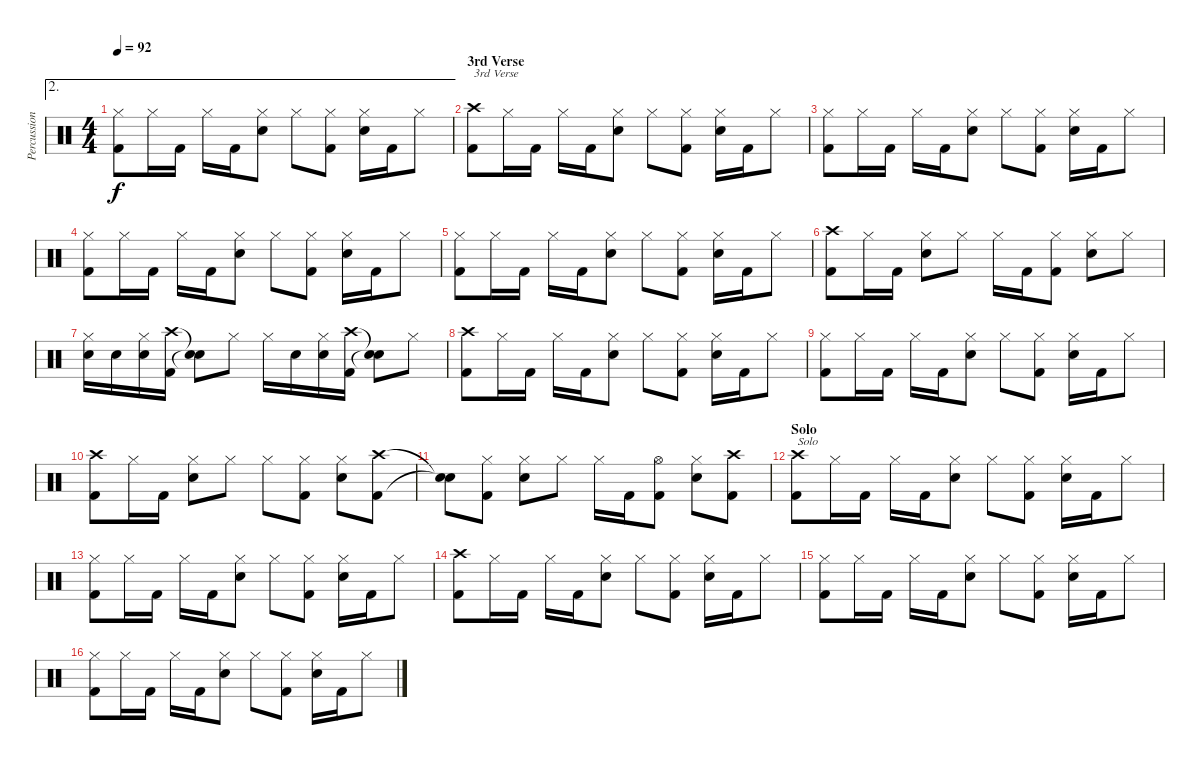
\track ("Percussions" "Percussion") {instrument percussion}
\staff {score}
\articulation defaults
\ae 2
\ts (4 4)
\tempo 92
\clef neutral
\ks c
("Hi-Hat (closed)" "Kick (hit) 2").8{dy f} "Hi-Hat (closed)".16 "Kick (hit) 2".16 "Hi-Hat (closed)".16 "Kick (hit) 2".16 ("Hi-Hat (closed)" "Snare (hit) 2").8 "Hi-Hat (closed)".8 ("Hi-Hat (closed)" "Kick (hit) 2").8 ("Hi-Hat (closed)" "Snare (hit) 2").16 "Kick (hit) 2".16 "Hi-Hat (closed)".8 |
\section ("" "3rd Verse")
("Crash high (hit)" "Kick (hit) 2").8{txt "3rd Verse"} "Hi-Hat (closed)".16 "Kick (hit) 2".16 "Hi-Hat (closed)".16 "Kick (hit) 2".16 ("Hi-Hat (closed)" "Snare (hit) 2").8 "Hi-Hat (closed)".8 ("Hi-Hat (closed)" "Kick (hit) 2").8 ("Hi-Hat (closed)" "Snare (hit) 2").16 "Kick (hit) 2".16 "Hi-Hat (closed)".8 |
("Hi-Hat (closed)" "Kick (hit) 2").8 "Hi-Hat (closed)".16 "Kick (hit) 2".16 "Hi-Hat (closed)".16 "Kick (hit) 2".16 ("Hi-Hat (closed)" "Snare (hit) 2").8 "Hi-Hat (closed)".8 ("Hi-Hat (closed)" "Kick (hit) 2").8 ("Hi-Hat (closed)" "Snare (hit) 2").16 "Kick (hit) 2".16 "Hi-Hat (closed)".8 |
("Hi-Hat (closed)" "Kick (hit) 2").8 "Hi-Hat (closed)".16 "Kick (hit) 2".16 "Hi-Hat (closed)".16 "Kick (hit) 2".16 ("Hi-Hat (closed)" "Snare (hit) 2").8 "Hi-Hat (closed)".8 ("Hi-Hat (closed)" "Kick (hit) 2").8 ("Hi-Hat (closed)" "Snare (hit) 2").16 "Kick (hit) 2".16 "Hi-Hat (closed)".8 |
("Hi-Hat (closed)" "Kick (hit) 2").8 "Hi-Hat (closed)".16 "Kick (hit) 2".16 "Hi-Hat (closed)".16 "Kick (hit) 2".16 ("Hi-Hat (closed)" "Snare (hit) 2").8 "Hi-Hat (closed)".8 ("Hi-Hat (closed)" "Kick (hit) 2").8 ("Hi-Hat (closed)" "Snare (hit) 2").16 "Kick (hit) 2".16 "Hi-Hat (closed)".8 |
("Crash high (hit)" "Kick (hit) 2").8 "Hi-Hat (closed)".16 "Kick (hit) 2".16 ("Hi-Hat (closed)" "Snare (hit) 2").8 "Hi-Hat (closed)".8 "Hi-Hat (closed)".16 "Kick (hit) 2".16 ("Hi-Hat (closed)" "Kick (hit) 2").8 ("Hi-Hat (closed)" "Snare (hit) 2").8 "Hi-Hat (closed)".8 |
("Hi-Hat (closed)" "Snare (hit) 2").16 "Snare (hit) 2".16 ("Hi-Hat (closed)" "Snare (hit) 2").16 ("Crash high (hit)" "Kick (hit) 2").16 ("Snare (hit)"{t} "Snare (hit)"{t}).8 "Hi-Hat (closed)".8 "Hi-Hat (closed)".16 "Snare (hit) 2".16 ("Hi-Hat (closed)" "Snare (hit) 2").16 ("Crash high (hit)" "Kick (hit) 2").16 ("Snare (hit)"{t} "Snare (hit)"{t}).8 "Hi-Hat (closed)".8 |
("Crash high (hit)" "Kick (hit) 2").8 "Hi-Hat (closed)".16 "Kick (hit) 2".16 "Hi-Hat (closed)".16 "Kick (hit) 2".16 ("Hi-Hat (closed)" "Snare (hit) 2").8 "Hi-Hat (closed)".8 ("Hi-Hat (closed)" "Kick (hit) 2").8 ("Hi-Hat (closed)" "Snare (hit) 2").16 "Kick (hit) 2".16 "Hi-Hat (closed)".8 |
("Hi-Hat (closed)" "Kick (hit) 2").8 "Hi-Hat (closed)".16 "Kick (hit) 2".16 "Hi-Hat (closed)".16 "Kick (hit) 2".16 ("Hi-Hat (closed)" "Snare (hit) 2").8 "Hi-Hat (closed)".8 ("Hi-Hat (closed)" "Kick (hit) 2").8 ("Hi-Hat (closed)" "Snare (hit) 2").16 "Kick (hit) 2".16 "Hi-Hat (closed)".8 |
("Crash high (hit)" "Kick (hit) 2").8 "Hi-Hat (closed)".16 "Kick (hit) 2".16 ("Hi-Hat (closed)" "Snare (hit) 2").8 "Hi-Hat (closed)".8 "Hi-Hat (closed)".8 ("Hi-Hat (closed)" "Kick (hit) 2").8 ("Hi-Hat (closed)" "Snare (hit) 2").8 ("Crash high (hit)" "Kick (hit) 2").8 |
("Snare (hit)"{t} "Snare (hit)"{t}).8 ("Hi-Hat (closed)" "Kick (hit) 2").8 ("Hi-Hat (closed)" "Snare (hit) 2").8 "Hi-Hat (closed)".8 "Hi-Hat (closed)".16 "Kick (hit) 2".16 ("Hi-Hat (open)" "Kick (hit) 2").8 ("Hi-Hat (closed)" "Snare (hit) 2").8 ("Crash high (hit)" "Kick (hit) 2").8 |
\section ("" "Solo")
("Crash high (hit)" "Kick (hit) 2").8{txt "Solo"} "Hi-Hat (closed)".16 "Kick (hit) 2".16 "Hi-Hat (closed)".16 "Kick (hit) 2".16 ("Hi-Hat (closed)" "Snare (hit) 2").8 "Hi-Hat (closed)".8 ("Hi-Hat (closed)" "Kick (hit) 2").8 ("Hi-Hat (closed)" "Snare (hit) 2").16 "Kick (hit) 2".16 "Hi-Hat (closed)".8 |
("Hi-Hat (closed)" "Kick (hit) 2").8 "Hi-Hat (closed)".16 "Kick (hit) 2".16 "Hi-Hat (closed)".16 "Kick (hit) 2".16 ("Hi-Hat (closed)" "Snare (hit) 2").8 "Hi-Hat (closed)".8 ("Hi-Hat (closed)" "Kick (hit) 2").8 ("Hi-Hat (closed)" "Snare (hit) 2").16 "Kick (hit) 2".16 "Hi-Hat (closed)".8 |
("Crash high (hit)" "Kick (hit) 2").8 "Hi-Hat (closed)".16 "Kick (hit) 2".16 "Hi-Hat (closed)".16 "Kick (hit) 2".16 ("Hi-Hat (closed)" "Snare (hit) 2").8 "Hi-Hat (closed)".8 ("Hi-Hat (closed)" "Kick (hit) 2").8 ("Hi-Hat (closed)" "Snare (hit) 2").16 "Kick (hit) 2".16 "Hi-Hat (closed)".8 |
("Hi-Hat (closed)" "Kick (hit) 2").8 "Hi-Hat (closed)".16 "Kick (hit) 2".16 "Hi-Hat (closed)".16 "Kick (hit) 2".16 ("Hi-Hat (closed)" "Snare (hit) 2").8 "Hi-Hat (closed)".8 ("Hi-Hat (closed)" "Kick (hit) 2").8 ("Hi-Hat (closed)" "Snare (hit) 2").16 "Kick (hit) 2".16 "Hi-Hat (closed)".8 |
("Hi-Hat (closed)" "Kick (hit) 2").8 "Hi-Hat (closed)".16 "Kick (hit) 2".16 "Hi-Hat (closed)".16 "Kick (hit) 2".16 ("Hi-Hat (closed)" "Snare (hit) 2").8 "Hi-Hat (closed)".8 ("Hi-Hat (closed)" "Kick (hit) 2").8 ("Hi-Hat (closed)" "Snare (hit) 2").16 "Kick (hit) 2".16 "Hi-Hat (closed)".8
